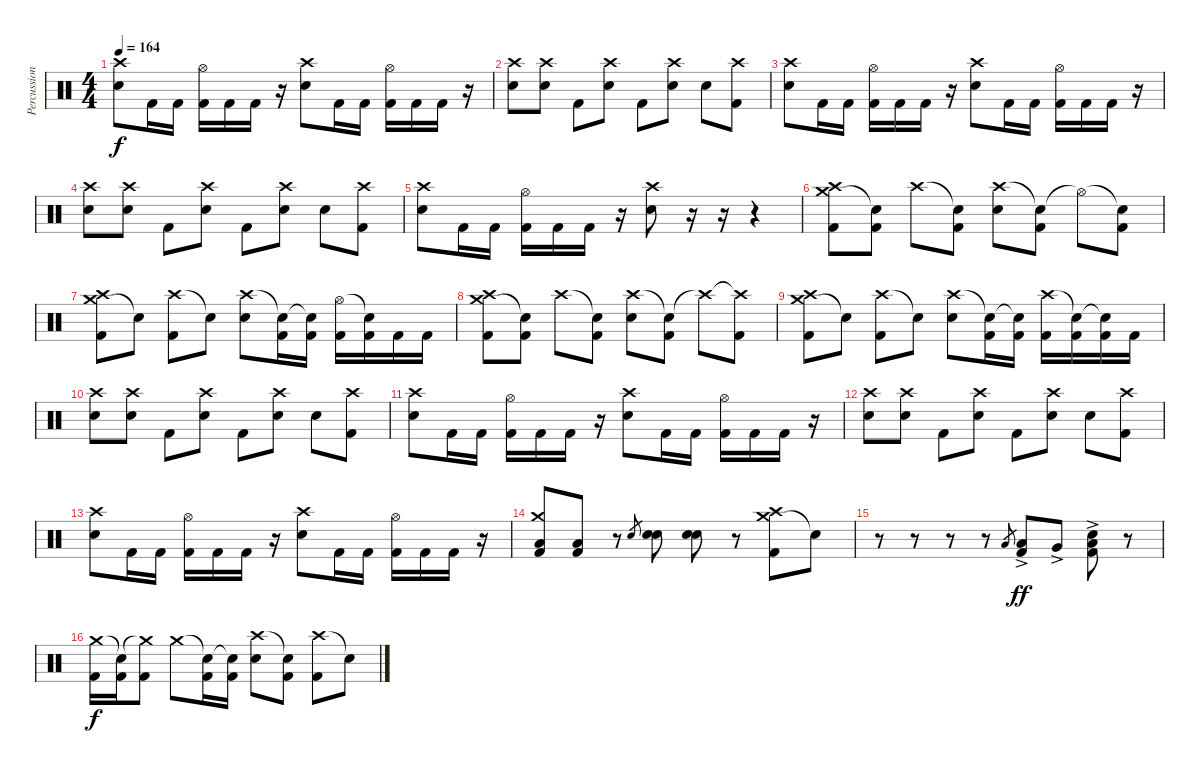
\track ("Percussion" "Percussion") {instrument percussion bank 177}
\staff {score}
\articulation defaults
\ts (4 4)
\tempo 164
\clef neutral
\ks c
("Crash high (hit)" "Snare (hit) 2").8{dy f} "Kick (hit) 2".16 "Kick (hit) 2".16 ("Hi-Hat (open)" "Kick (hit) 2").16 "Kick (hit) 2".16 "Kick (hit) 2".16 r.16 ("Crash high (hit)" "Snare (hit) 2").8 "Kick (hit) 2".16 "Kick (hit) 2".16 ("Hi-Hat (open)" "Kick (hit) 2").16 "Kick (hit) 2".16 "Kick (hit) 2".16 r.16 |
("Crash high (hit)" "Snare (hit) 2").8 ("Crash high (hit)" "Snare (hit) 2").8 "Kick (hit) 2".8 ("Crash high (hit)" "Snare (hit) 2").8 "Kick (hit) 2".8 ("Crash high (hit)" "Snare (hit) 2").8 "Snare (hit) 2".8 ("Crash high (hit)" "Kick (hit) 2").8 |
("Crash high (hit)" "Snare (hit) 2").8 "Kick (hit) 2".16 "Kick (hit) 2".16 ("Hi-Hat (open)" "Kick (hit) 2").16 "Kick (hit) 2".16 "Kick (hit) 2".16 r.16 ("Crash high (hit)" "Snare (hit) 2").8 "Kick (hit) 2".16 "Kick (hit) 2".16 ("Hi-Hat (open)" "Kick (hit) 2").16 "Kick (hit) 2".16 "Kick (hit) 2".16 r.16 |
("Crash high (hit)" "Snare (hit) 2").8 ("Crash high (hit)" "Snare (hit) 2").8 "Kick (hit) 2".8 ("Crash high (hit)" "Snare (hit) 2").8 "Kick (hit) 2".8 ("Crash high (hit)" "Snare (hit) 2").8 "Snare (hit) 2".8 ("Crash high (hit)" "Kick (hit) 2").8 |
("Crash high (hit)" "Snare (hit) 2").8 "Kick (hit) 2".16 "Kick (hit) 2".16 ("Hi-Hat (open)" "Kick (hit) 2").16 "Kick (hit) 2".16 "Kick (hit) 2".16 r.16 ("Crash high (hit)" "Snare (hit) 2").8 r.16 r.16 r.4 |
("Crash medium (hit)" "Crash high (hit)" "Kick (hit) 2").8 ("Snare (hit)"{t} "Kick (hit) 2").8 "Crash high (hit)".8 ("Snare (hit)"{t} "Kick (hit) 2").8 ("Crash high (hit)" "Snare (hit) 2").8 ("Snare (hit)"{t} "Kick (hit) 2").8 "Hi-Hat (open)"{t}.8 ("Snare (hit)"{t} "Kick (hit) 2").8 |
("Crash medium (hit)" "Crash high (hit)" "Kick (hit) 2").8 "Snare (hit)"{t}.8 ("Crash high (hit)" "Kick (hit) 2").8 "Snare (hit)"{t}.8 ("Crash high (hit)" "Snare (hit) 2").8 ("Snare (hit)"{t} "Kick (hit) 2").16 ("Snare (hit)"{t} "Kick (hit) 2").16 ("Hi-Hat (open)" "Kick (hit) 2").16 ("Snare (hit)"{t} "Kick (hit) 2").16 "Kick (hit) 2".16 "Kick (hit) 2".16 |
("Crash medium (hit)" "Crash high (hit)" "Kick (hit) 2").8 ("Snare (hit)"{t} "Kick (hit) 2").8 "Crash high (hit)".8 ("Snare (hit)"{t} "Kick (hit) 2").8 ("Crash high (hit)" "Snare (hit) 2").8 ("Snare (hit)"{t} "Kick (hit) 2").8 "Crash high (hit)"{t}.8 ("Crash high (hit)"{t} "Kick (hit) 2").8 |
("Crash medium (hit)" "Crash high (hit)" "Kick (hit) 2").8 "Snare (hit)"{t}.8 ("Crash high (hit)" "Kick (hit) 2").8 "Snare (hit)"{t}.8 ("Crash high (hit)" "Snare (hit) 2").8 ("Snare (hit)"{t} "Kick (hit) 2").16 ("Snare (hit)"{t} "Kick (hit) 2").16 ("Crash high (hit)" "Kick (hit) 2").16 ("Snare (hit)"{t} "Kick (hit) 2").16 ("Snare (hit)"{t} "Kick (hit) 2").16 "Kick (hit) 2".16 |
("Crash high (hit)" "Snare (hit) 2").8 ("Crash high (hit)" "Snare (hit) 2").8 "Kick (hit) 2".8 ("Crash high (hit)" "Snare (hit) 2").8 "Kick (hit) 2".8 ("Crash high (hit)" "Snare (hit) 2").8 "Snare (hit) 2".8 ("Crash high (hit)" "Kick (hit) 2").8 |
("Crash high (hit)" "Snare (hit) 2").8 "Kick (hit) 2".16 "Kick (hit) 2".16 ("Hi-Hat (open)" "Kick (hit) 2").16 "Kick (hit) 2".16 "Kick (hit) 2".16 r.16 ("Crash high (hit)" "Snare (hit) 2").8 "Kick (hit) 2".16 "Kick (hit) 2".16 ("Hi-Hat (open)" "Kick (hit) 2").16 "Kick (hit) 2".16 "Kick (hit) 2".16 r.16 |
("Crash high (hit)" "Snare (hit) 2").8 ("Crash high (hit)" "Snare (hit) 2").8 "Kick (hit) 2".8 ("Crash high (hit)" "Snare (hit) 2").8 "Kick (hit) 2".8 ("Crash high (hit)" "Snare (hit) 2").8 "Snare (hit) 2".8 ("Crash high (hit)" "Kick (hit) 2").8 |
("Crash high (hit)" "Snare (hit) 2").8 "Kick (hit) 2".16 "Kick (hit) 2".16 ("Hi-Hat (open)" "Kick (hit) 2").16 "Kick (hit) 2".16 "Kick (hit) 2".16 r.16 ("Crash high (hit)" "Snare (hit) 2").8 "Kick (hit) 2".16 "Kick (hit) 2".16 ("Hi-Hat (open)" "Kick (hit) 2").16 "Kick (hit) 2".16 "Kick (hit) 2".16 r.16 |
("Crash medium (hit)" "Low Floor Tom (hit)" "Kick (hit) 2").8 ("Low Floor Tom (hit)" "Kick (hit) 2").8 r.8 "Snare (hit) 2".8{gr} ("Snare (hit) 2" "Snare (hit) 2").8 ("Snare (hit) 2" "Snare (hit) 2").8 r.8 ("Crash medium (hit)" "Crash high (hit)" "Kick (hit) 2").8 "Snare (hit)"{t}.8 |
r.8 r.8 r.8 r.8 "Low Tom (hit)".8{gr} ("Low Tom (hit)"{ac} "Kick (hit) 2"{ac}).8{dy ff} "Very Low Tom (hit)"{ac}.8 ("Low Floor Tom (hit)"{ac} "Snare (hit) 2"{ac} "Kick (hit) 2"{ac}).8 r.8 |
("Crash medium (hit)" "Kick (hit) 2").16{dy f} ("Snare (hit)"{t} "Kick (hit) 2").16 ("Crash medium (hit)"{t} "Kick (hit) 2").8 "Crash medium (hit)".8 ("Snare (hit)"{t} "Kick (hit) 2").16 ("Snare (hit)"{t} "Kick (hit) 2").16 ("Crash high (hit)" "Snare (hit) 2").8 ("Snare (hit)"{t} "Kick (hit) 2").8 ("Crash high (hit)" "Kick (hit) 2").8 "Snare (hit)"{t}.8
